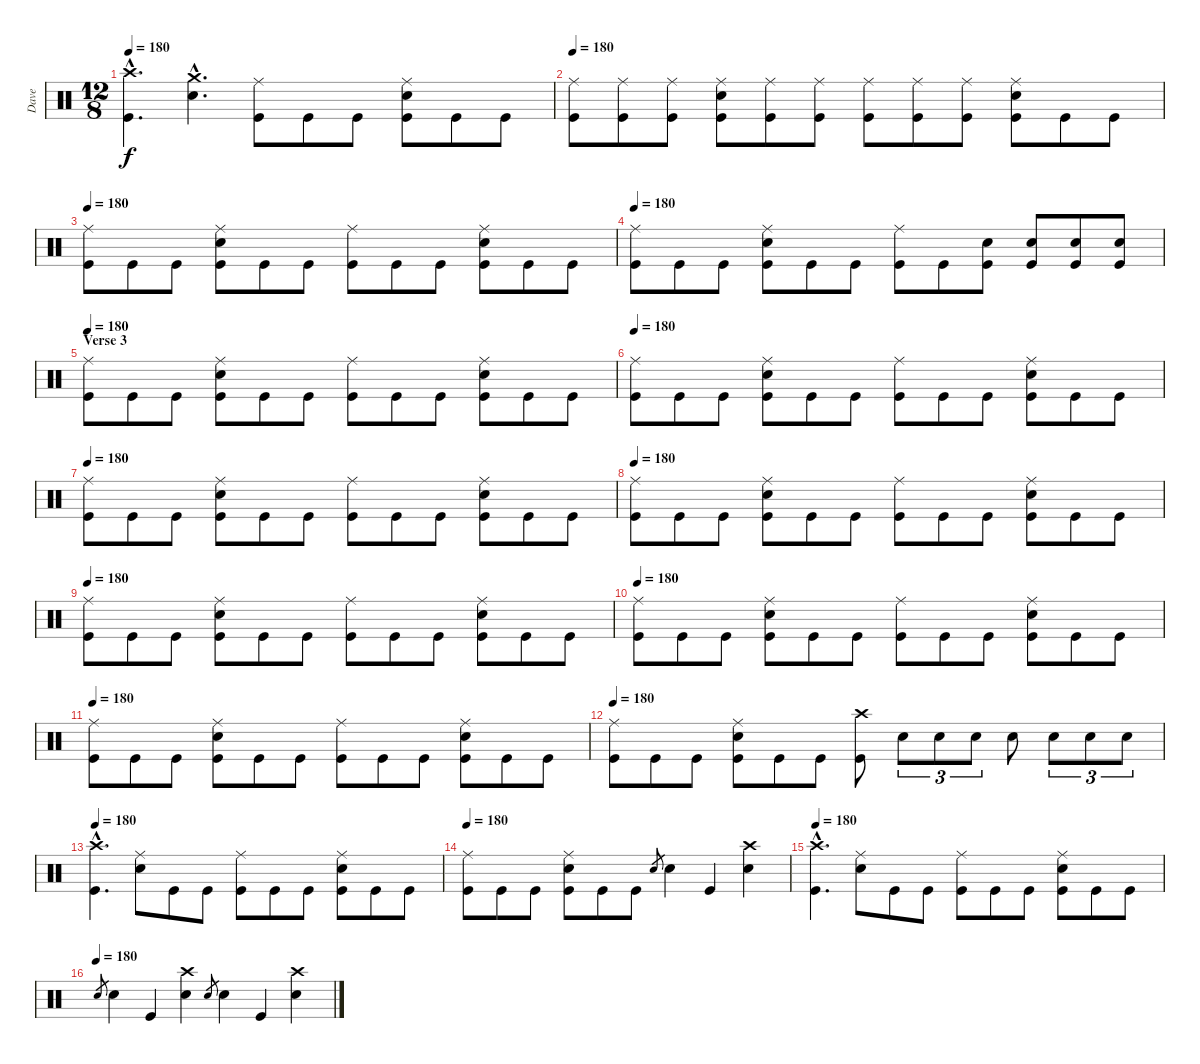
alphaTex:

\track ("Dave" "Dave") {instrument percussion}
\staff {score}
\articulation defaults
\ts (12 8)
\tempo 180
\clef neutral
\ks c
("Crash high (hit)"{hac} "Kick (hit)"{hac}).4{d dy f} ("Crash medium (hit)"{hac} "Snare (hit) 2"{hac}).4{d} ("Ride (middle)" "Kick (hit)").8 "Kick (hit)".8 "Kick (hit)".8 ("Ride (middle)" "Snare (hit) 2" "Kick (hit)").8 "Kick (hit)".8 "Kick (hit)".8 |
\tempo 180
("Ride (middle)" "Kick (hit)").8 ("Ride (middle)" "Kick (hit)").8 ("Ride (middle)" "Kick (hit)").8 ("Ride (middle)" "Snare (hit) 2" "Kick (hit)").8 ("Ride (middle)" "Kick (hit)").8 ("Ride (middle)" "Kick (hit)").8 ("Ride (middle)" "Kick (hit)").8 ("Ride (middle)" "Kick (hit)").8 ("Ride (middle)" "Kick (hit)").8 ("Ride (middle)" "Snare (hit) 2" "Kick (hit)").8 "Kick (hit)".8 "Kick (hit)".8 |
\tempo 180
("Ride (middle)" "Kick (hit)").8 "Kick (hit)".8 "Kick (hit)".8 ("Ride (middle)" "Snare (hit) 2" "Kick (hit)").8 "Kick (hit)".8 "Kick (hit)".8 ("Ride (middle)" "Kick (hit)").8 "Kick (hit)".8 "Kick (hit)".8 ("Ride (middle)" "Snare (hit) 2" "Kick (hit)").8 "Kick (hit)".8 "Kick (hit)".8 |
\tempo 180
("Ride (middle)" "Kick (hit)").8 "Kick (hit)".8 "Kick (hit)".8 ("Ride (middle)" "Snare (hit) 2" "Kick (hit)").8 "Kick (hit)".8 "Kick (hit)".8 ("Ride (middle)" "Kick (hit)").8 "Kick (hit)".8 ("Snare (hit) 2" "Kick (hit)").8 ("Snare (hit) 2" "Kick (hit)").8 ("Snare (hit) 2" "Kick (hit)").8 ("Snare (hit) 2" "Kick (hit)").8 |
\section ("" "Verse 3")
\tempo 180
("Ride (middle)" "Kick (hit)").8 "Kick (hit)".8 "Kick (hit)".8 ("Ride (middle)" "Snare (hit) 2" "Kick (hit)").8 "Kick (hit)".8 "Kick (hit)".8 ("Ride (middle)" "Kick (hit)").8 "Kick (hit)".8 "Kick (hit)".8 ("Ride (middle)" "Snare (hit) 2" "Kick (hit)").8 "Kick (hit)".8 "Kick (hit)".8 |
\tempo 180
("Ride (middle)" "Kick (hit)").8 "Kick (hit)".8 "Kick (hit)".8 ("Ride (middle)" "Snare (hit) 2" "Kick (hit)").8 "Kick (hit)".8 "Kick (hit)".8 ("Ride (middle)" "Kick (hit)").8 "Kick (hit)".8 "Kick (hit)".8 ("Ride (middle)" "Snare (hit) 2" "Kick (hit)").8 "Kick (hit)".8 "Kick (hit)".8 |
\tempo 180
("Ride (middle)" "Kick (hit)").8 "Kick (hit)".8 "Kick (hit)".8 ("Ride (middle)" "Snare (hit) 2" "Kick (hit)").8 "Kick (hit)".8 "Kick (hit)".8 ("Ride (middle)" "Kick (hit)").8 "Kick (hit)".8 "Kick (hit)".8 ("Ride (middle)" "Snare (hit) 2" "Kick (hit)").8 "Kick (hit)".8 "Kick (hit)".8 |
\tempo 180
("Ride (middle)" "Kick (hit)").8 "Kick (hit)".8 "Kick (hit)".8 ("Ride (middle)" "Snare (hit) 2" "Kick (hit)").8 "Kick (hit)".8 "Kick (hit)".8 ("Ride (middle)" "Kick (hit)").8 "Kick (hit)".8 "Kick (hit)".8 ("Ride (middle)" "Snare (hit) 2" "Kick (hit)").8 "Kick (hit)".8 "Kick (hit)".8 |
\tempo 180
("Ride (middle)" "Kick (hit)").8 "Kick (hit)".8 "Kick (hit)".8 ("Ride (middle)" "Snare (hit) 2" "Kick (hit)").8 "Kick (hit)".8 "Kick (hit)".8 ("Ride (middle)" "Kick (hit)").8 "Kick (hit)".8 "Kick (hit)".8 ("Ride (middle)" "Snare (hit) 2" "Kick (hit)").8 "Kick (hit)".8 "Kick (hit)".8 |
\tempo 180
("Ride (middle)" "Kick (hit)").8 "Kick (hit)".8 "Kick (hit)".8 ("Ride (middle)" "Snare (hit) 2" "Kick (hit)").8 "Kick (hit)".8 "Kick (hit)".8 ("Ride (middle)" "Kick (hit)").8 "Kick (hit)".8 "Kick (hit)".8 ("Ride (middle)" "Snare (hit) 2" "Kick (hit)").8 "Kick (hit)".8 "Kick (hit)".8 |
\tempo 180
("Ride (middle)" "Kick (hit)").8 "Kick (hit)".8 "Kick (hit)".8 ("Ride (middle)" "Snare (hit) 2" "Kick (hit)").8 "Kick (hit)".8 "Kick (hit)".8 ("Ride (middle)" "Kick (hit)").8 "Kick (hit)".8 "Kick (hit)".8 ("Ride (middle)" "Snare (hit) 2" "Kick (hit)").8 "Kick (hit)".8 "Kick (hit)".8 |
\tempo 180
("Ride (middle)" "Kick (hit)").8 "Kick (hit)".8 "Kick (hit)".8 ("Ride (middle)" "Snare (hit) 2" "Kick (hit)").8 "Kick (hit)".8 "Kick (hit)".8 ("Crash high (hit)" "Kick (hit)").8 "Snare (hit) 2".8{tu (3 2)} "Snare (hit) 2".8{tu (3 2)} "Snare (hit) 2".8{tu (3 2)} "Snare (hit) 2".8 "Snare (hit) 2".8{tu (3 2)} "Snare (hit) 2".8{tu (3 2)} "Snare (hit) 2".8{tu (3 2)} |
\tempo 180
("Crash high (hit)"{hac} "Kick (hit)"{hac}).4{d} ("Ride (middle)" "Snare (hit) 2").8 "Kick (hit)".8 "Kick (hit)".8 ("Ride (middle)" "Kick (hit)").8 "Kick (hit)".8 "Kick (hit)".8 ("Ride (middle)" "Snare (hit) 2" "Kick (hit)").8 "Kick (hit)".8 "Kick (hit)".8 |
\tempo 180
("Ride (middle)" "Kick (hit)").8 "Kick (hit)".8 "Kick (hit)".8 ("Ride (middle)" "Snare (hit) 2" "Kick (hit)").8 "Kick (hit)".8 "Kick (hit)".8 "Snare (hit) 2".8{gr} "Snare (hit) 2".4 "Kick (hit)".4 ("Crash high (hit)" "Snare (hit) 2").4 |
\tempo 180
("Crash high (hit)"{hac} "Kick (hit)"{hac}).4{d} ("Ride (middle)" "Snare (hit) 2").8 "Kick (hit)".8 "Kick (hit)".8 ("Ride (middle)" "Kick (hit)").8 "Kick (hit)".8 "Kick (hit)".8 ("Ride (middle)" "Snare (hit) 2" "Kick (hit)").8 "Kick (hit)".8 "Kick (hit)".8 |
\tempo (180)
"Snare (hit) 2".8{gr} "Snare (hit) 2".4 "Kick (hit)".4 ("Crash high (hit)" "Snare (hit) 2").4 "Snare (hit) 2".8{gr} "Snare (hit) 2".4 "Kick (hit)".4 ("Crash high (hit)" "Snare (hit) 2").4
